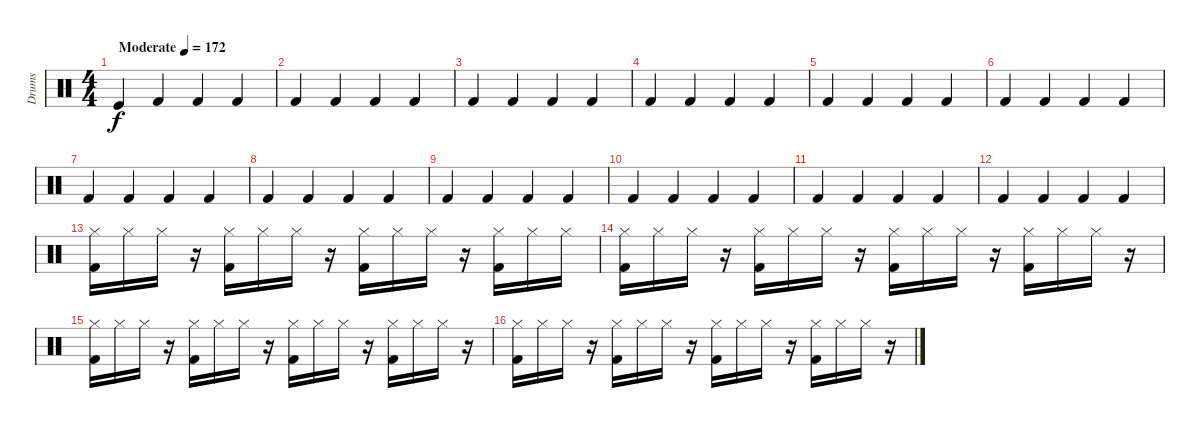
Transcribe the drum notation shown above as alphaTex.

\track ("Drums" "Drums") {instrument percussion}
\staff {score}
\articulation defaults
\ts (4 4)
\tempo (172 "Moderate")
\clef neutral
\ks c "Kick (hit)".4{dy f} "Kick (hit) 2".4 "Kick (hit) 2".4 "Kick (hit) 2".4
|
"Kick (hit) 2".4 "Kick (hit) 2".4 "Kick (hit) 2".4 "Kick (hit) 2".4 |
"Kick (hit) 2".4 "Kick (hit) 2".4 "Kick (hit) 2".4 "Kick (hit) 2".4 |
"Kick (hit) 2".4 "Kick (hit) 2".4 "Kick (hit) 2".4 "Kick (hit) 2".4 |
"Kick (hit) 2".4 "Kick (hit) 2".4 "Kick (hit) 2".4 "Kick (hit) 2".4 |
"Kick (hit) 2".4 "Kick (hit) 2".4 "Kick (hit) 2".4 "Kick (hit) 2".4 |
"Kick (hit) 2".4 "Kick (hit) 2".4 "Kick (hit) 2".4 "Kick (hit) 2".4 |
"Kick (hit) 2".4 "Kick (hit) 2".4 "Kick (hit) 2".4 "Kick (hit) 2".4 |
"Kick (hit) 2".4 "Kick (hit) 2".4 "Kick (hit) 2".4 "Kick (hit) 2".4 |
"Kick (hit) 2".4 "Kick (hit) 2".4 "Kick (hit) 2".4 "Kick (hit) 2".4 |
"Kick (hit) 2".4 "Kick (hit) 2".4 "Kick (hit) 2".4 "Kick (hit) 2".4 |
"Kick (hit) 2".4 "Kick (hit) 2".4 "Kick (hit) 2".4 "Kick (hit) 2".4 |
("Kick (hit) 2" "Hi-Hat (closed)").16 "Hi-Hat (closed)".16 "Hi-Hat (closed)".16 r.16 ("Kick (hit) 2" "Hi-Hat (closed)").16 "Hi-Hat (closed)".16 "Hi-Hat (closed)".16 r.16 ("Kick (hit) 2" "Hi-Hat (closed)").16 "Hi-Hat (closed)".16 "Hi-Hat (closed)".16 r.16 ("Kick (hit) 2" "Hi-Hat (closed)").16 "Hi-Hat (closed)".16 "Hi-Hat (closed)".16 |
("Kick (hit) 2" "Hi-Hat (closed)").16 "Hi-Hat (closed)".16 "Hi-Hat (closed)".16 r.16 ("Kick (hit) 2" "Hi-Hat (closed)").16 "Hi-Hat (closed)".16 "Hi-Hat (closed)".16 r.16 ("Kick (hit) 2" "Hi-Hat (closed)").16 "Hi-Hat (closed)".16 "Hi-Hat (closed)".16 r.16 ("Kick (hit) 2" "Hi-Hat (closed)").16 "Hi-Hat (closed)".16 "Hi-Hat (closed)".16 r.16 |
("Kick (hit) 2" "Hi-Hat (closed)").16 "Hi-Hat (closed)".16 "Hi-Hat (closed)".16 r.16 ("Kick (hit) 2" "Hi-Hat (closed)").16 "Hi-Hat (closed)".16 "Hi-Hat (closed)".16 r.16 ("Kick (hit) 2" "Hi-Hat (closed)").16 "Hi-Hat (closed)".16 "Hi-Hat (closed)".16 r.16 ("Kick (hit) 2" "Hi-Hat (closed)").16 "Hi-Hat (closed)".16 "Hi-Hat (closed)".16 r.16 |
("Kick (hit) 2" "Hi-Hat (closed)").16 "Hi-Hat (closed)".16 "Hi-Hat (closed)".16 r.16 ("Kick (hit) 2" "Hi-Hat (closed)").16 "Hi-Hat (closed)".16 "Hi-Hat (closed)".16 r.16 ("Kick (hit) 2" "Hi-Hat (closed)").16 "Hi-Hat (closed)".16 "Hi-Hat (closed)".16 r.16 ("Kick (hit) 2" "Hi-Hat (closed)").16 "Hi-Hat (closed)".16 "Hi-Hat (closed)".16 r.16
